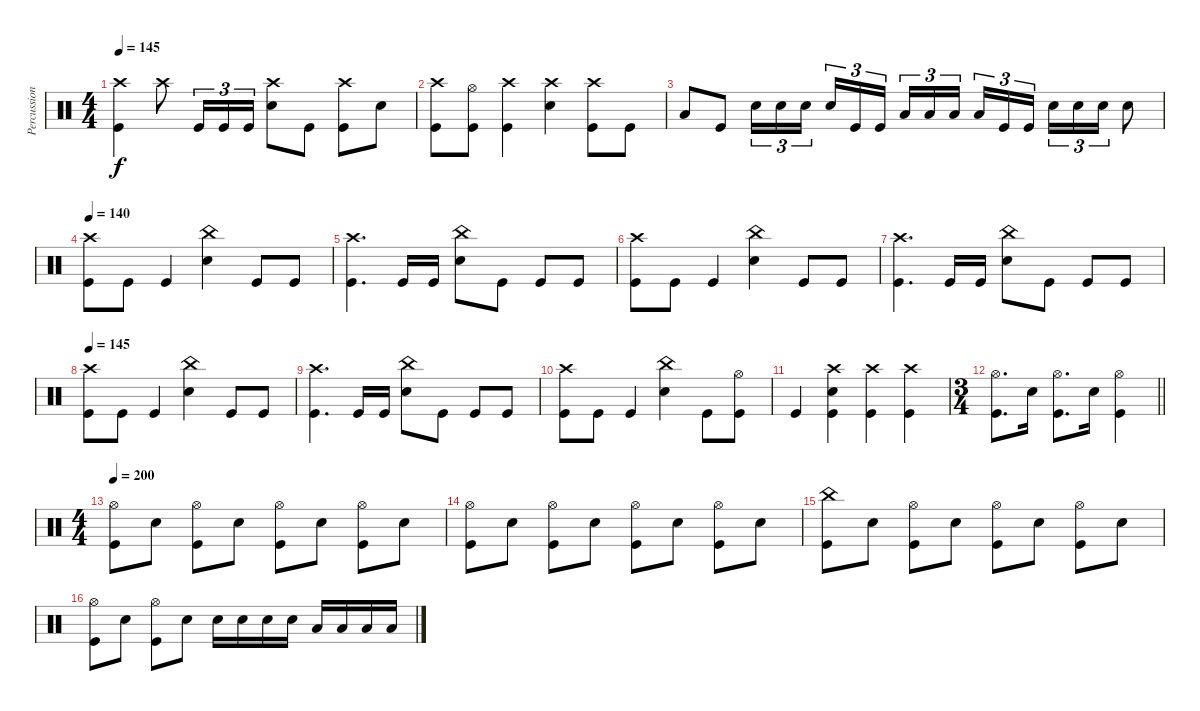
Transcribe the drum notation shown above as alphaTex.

\track ("Percussion" "Percussion") {instrument percussion}
\staff {score}
\articulation defaults
\ts (4 4)
\tempo 145
\clef neutral
\ks c
("Crash high (hit)" "Kick (hit)").4{dy f} "Crash high (hit)".8 "Kick (hit)".16{tu (3 2)} "Kick (hit)".16{tu (3 2)} "Kick (hit)".16{tu (3 2)} ("Crash high (hit)" "Electric Snare (hit)").8 "Kick (hit)".8 ("Crash high (hit)" "Kick (hit)").8 "Electric Snare (hit)".8 |
("Crash high (hit)" "Kick (hit)").8 ("Hi-Hat (open)" "Kick (hit)").8 ("Crash high (hit)" "Kick (hit)").4 ("Crash high (hit)" "Electric Snare (hit)").4 ("Crash high (hit)" "Kick (hit)").8 "Kick (hit)".8 |
"Low Floor Tom (hit)".8 "Kick (hit)".8 "Electric Snare (hit)".16{tu (3 2)} "Electric Snare (hit)".16{tu (3 2)} "Electric Snare (hit)".16{tu (3 2) beam splitsecondary} "Electric Snare (hit)".16{tu (3 2)} "Kick (hit)".16{tu (3 2)} "Kick (hit)".16{tu (3 2)} "Low Tom (hit)".16{tu (3 2)} "Low Tom (hit)".16{tu (3 2)} "Low Tom (hit)".16{tu (3 2) beam splitsecondary} "Low Tom (hit)".16{tu (3 2)} "Kick (hit)".16{tu (3 2)} "Kick (hit)".16{tu (3 2)} "Electric Snare (hit)".16{tu (3 2)} "Electric Snare (hit)".16{tu (3 2)} "Electric Snare (hit)".16{tu (3 2)} "Electric Snare (hit)".8 |
\tempo 140
("Crash high (hit)" "Kick (hit)").8 "Kick (hit)".8 "Kick (hit)".4 ("China (hit)" "Electric Snare (hit)").4 "Kick (hit)".8 "Kick (hit)".8 |
("Crash high (hit)" "Kick (hit)").4{d} "Kick (hit)".16 "Kick (hit)".16 ("China (hit)" "Electric Snare (hit)").8 "Kick (hit)".8 "Kick (hit)".8 "Kick (hit)".8 |
("Crash high (hit)" "Kick (hit)").8 "Kick (hit)".8 "Kick (hit)".4 ("China (hit)" "Electric Snare (hit)").4 "Kick (hit)".8 "Kick (hit)".8 |
("Crash high (hit)" "Kick (hit)").4{d} "Kick (hit)".16 "Kick (hit)".16 ("China (hit)" "Electric Snare (hit)").8 "Kick (hit)".8 "Kick (hit)".8 "Kick (hit)".8 |
\tempo 145
("Crash high (hit)" "Kick (hit)").8 "Kick (hit)".8 "Kick (hit)".4 ("China (hit)" "Electric Snare (hit)").4 "Kick (hit)".8 "Kick (hit)".8 |
("Crash high (hit)" "Kick (hit)").4{d} "Kick (hit)".16 "Kick (hit)".16 ("China (hit)" "Electric Snare (hit)").8 "Kick (hit)".8 "Kick (hit)".8 "Kick (hit)".8 |
("Crash high (hit)" "Kick (hit)").8 "Kick (hit)".8 "Kick (hit)".4 ("China (hit)" "Electric Snare (hit)").4 "Kick (hit)".8 ("Hi-Hat (open)" "Kick (hit)").8 |
"Kick (hit)".4 ("Crash high (hit)" "Electric Snare (hit)" "Kick (hit)").4 ("Crash high (hit)" "Kick (hit)").4 ("Crash high (hit)" "Kick (hit)").4 |
\ts (3 4)
\barLineRight lightlight
("Hi-Hat (open)" "Kick (hit)").8{d} "Electric Snare (hit)".16 ("Hi-Hat (open)" "Kick (hit)").8{d} "Electric Snare (hit)".16 ("Hi-Hat (open)" "Kick (hit)").4 |
\ts (4 4)
\tempo 200
("Hi-Hat (open)" "Kick (hit)").8 "Electric Snare (hit)".8 ("Hi-Hat (open)" "Kick (hit)").8 "Electric Snare (hit)".8 ("Hi-Hat (open)" "Kick (hit)").8 "Electric Snare (hit)".8 ("Hi-Hat (open)" "Kick (hit)").8 "Electric Snare (hit)".8 |
("Hi-Hat (open)" "Kick (hit)").8 "Electric Snare (hit)".8 ("Hi-Hat (open)" "Kick (hit)").8 "Electric Snare (hit)".8 ("Hi-Hat (open)" "Kick (hit)").8 "Electric Snare (hit)".8 ("Hi-Hat (open)" "Kick (hit)").8 "Electric Snare (hit)".8 |
("China (hit)" "Kick (hit)").8 "Electric Snare (hit)".8 ("Hi-Hat (open)" "Kick (hit)").8 "Electric Snare (hit)".8 ("Hi-Hat (open)" "Kick (hit)").8 "Electric Snare (hit)".8 ("Hi-Hat (open)" "Kick (hit)").8 "Electric Snare (hit)".8 |
("Hi-Hat (open)" "Kick (hit)").8 "Electric Snare (hit)".8 ("Hi-Hat (open)" "Kick (hit)").8 "Electric Snare (hit)".8 "Electric Snare (hit)".16 "Electric Snare (hit)".16 "Electric Snare (hit)".16 "Electric Snare (hit)".16 "Low Tom (hit)".16 "Low Tom (hit)".16 "Low Tom (hit)".16 "Low Tom (hit)".16
